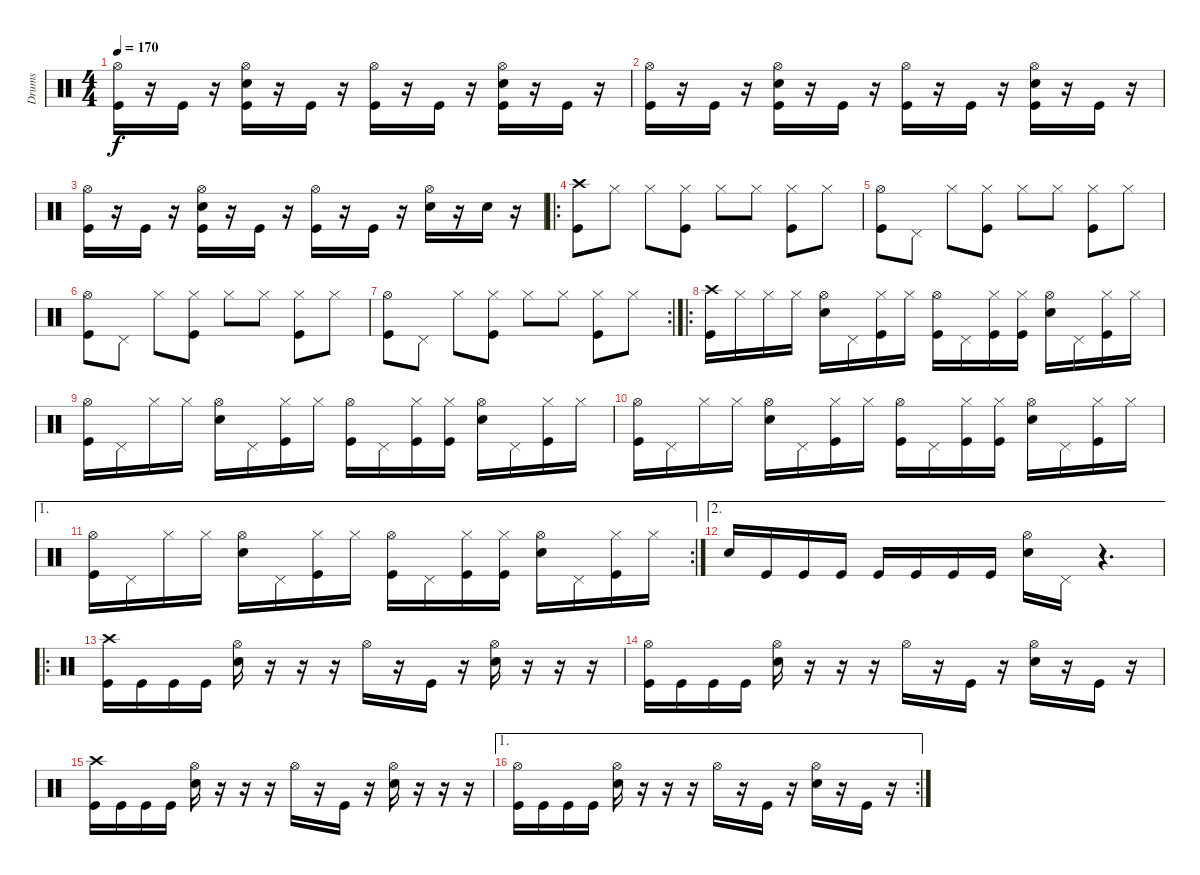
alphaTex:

\track ("Drums" "Drums") {instrument percussion}
\staff {score}
\articulation defaults
\ts (4 4)
\tempo 170
\clef neutral
\ks c
("Hi-Hat (open)" "Kick (hit)").16{dy f} r.16 "Kick (hit)".16 r.16 ("Hi-Hat (open)" "Snare (hit) 2" "Kick (hit)").16 r.16 "Kick (hit)".16 r.16 ("Hi-Hat (open)" "Kick (hit)").16 r.16 "Kick (hit)".16 r.16 ("Hi-Hat (open)" "Snare (hit) 2" "Kick (hit)").16 r.16 "Kick (hit)".16 r.16 |
("Hi-Hat (open)" "Kick (hit)").16 r.16 "Kick (hit)".16 r.16 ("Hi-Hat (open)" "Snare (hit) 2" "Kick (hit)").16 r.16 "Kick (hit)".16 r.16 ("Hi-Hat (open)" "Kick (hit)").16 r.16 "Kick (hit)".16 r.16 ("Hi-Hat (open)" "Snare (hit) 2" "Kick (hit)").16 r.16 "Kick (hit)".16 r.16 |
("Hi-Hat (open)" "Kick (hit)").16 r.16 "Kick (hit)".16 r.16 ("Hi-Hat (open)" "Snare (hit) 2" "Kick (hit)").16 r.16 "Kick (hit)".16 r.16 ("Hi-Hat (open)" "Kick (hit)").16 r.16 "Kick (hit)".16 r.16 ("Hi-Hat (open)" "Snare (hit) 2").16 r.16 "Snare (hit) 2".16 r.16 |
\ro
("Crash high (hit)" "Kick (hit)").8 "Hi-Hat (closed)".8 "Hi-Hat (closed)".8 ("Hi-Hat (closed)" "Kick (hit)").8 "Hi-Hat (closed)".8 "Hi-Hat (closed)".8 ("Hi-Hat (closed)" "Kick (hit)").8 "Hi-Hat (closed)".8 |
("Hi-Hat (open)" "Kick (hit)").8 "Pedal Hi-Hat (hit)".8 "Hi-Hat (closed)".8 ("Hi-Hat (closed)" "Kick (hit)").8 "Hi-Hat (closed)".8 "Hi-Hat (closed)".8 ("Hi-Hat (closed)" "Kick (hit)").8 "Hi-Hat (closed)".8 |
("Hi-Hat (open)" "Kick (hit)").8 "Pedal Hi-Hat (hit)".8 "Hi-Hat (closed)".8 ("Hi-Hat (closed)" "Kick (hit)").8 "Hi-Hat (closed)".8 "Hi-Hat (closed)".8 ("Hi-Hat (closed)" "Kick (hit)").8 "Hi-Hat (closed)".8 |
\rc 2
("Hi-Hat (open)" "Kick (hit)").8 "Pedal Hi-Hat (hit)".8 "Hi-Hat (closed)".8 ("Hi-Hat (closed)" "Kick (hit)").8 "Hi-Hat (closed)".8 "Hi-Hat (closed)".8 ("Hi-Hat (closed)" "Kick (hit)").8 "Hi-Hat (closed)".8 |
\ro
("Crash high (hit)" "Kick (hit)").16 "Hi-Hat (closed)".16 "Hi-Hat (closed)".16 "Hi-Hat (closed)".16 ("Hi-Hat (open)" "Snare (hit) 2").16 "Pedal Hi-Hat (hit)".16 ("Hi-Hat (closed)" "Kick (hit)").16 "Hi-Hat (closed)".16 ("Hi-Hat (open)" "Kick (hit)").16 "Pedal Hi-Hat (hit)".16 ("Hi-Hat (closed)" "Kick (hit)").16 ("Hi-Hat (closed)" "Kick (hit)").16 ("Hi-Hat (open)" "Snare (hit) 2").16 "Pedal Hi-Hat (hit)".16 ("Hi-Hat (closed)" "Kick (hit)").16 "Hi-Hat (closed)".16 |
("Hi-Hat (open)" "Kick (hit)").16 "Pedal Hi-Hat (hit)".16 "Hi-Hat (closed)".16 "Hi-Hat (closed)".16 ("Hi-Hat (open)" "Snare (hit) 2").16 "Pedal Hi-Hat (hit)".16 ("Hi-Hat (closed)" "Kick (hit)").16 "Hi-Hat (closed)".16 ("Hi-Hat (open)" "Kick (hit)").16 "Pedal Hi-Hat (hit)".16 ("Hi-Hat (closed)" "Kick (hit)").16 ("Hi-Hat (closed)" "Kick (hit)").16 ("Hi-Hat (open)" "Snare (hit) 2").16 "Pedal Hi-Hat (hit)".16 ("Hi-Hat (closed)" "Kick (hit)").16 "Hi-Hat (closed)".16 |
("Hi-Hat (open)" "Kick (hit)").16 "Pedal Hi-Hat (hit)".16 "Hi-Hat (closed)".16 "Hi-Hat (closed)".16 ("Hi-Hat (open)" "Snare (hit) 2").16 "Pedal Hi-Hat (hit)".16 ("Hi-Hat (closed)" "Kick (hit)").16 "Hi-Hat (closed)".16 ("Hi-Hat (open)" "Kick (hit)").16 "Pedal Hi-Hat (hit)".16 ("Hi-Hat (closed)" "Kick (hit)").16 ("Hi-Hat (closed)" "Kick (hit)").16 ("Hi-Hat (open)" "Snare (hit) 2").16 "Pedal Hi-Hat (hit)".16 ("Hi-Hat (closed)" "Kick (hit)").16 "Hi-Hat (closed)".16 |
\ae 1
\rc 2
("Hi-Hat (open)" "Kick (hit)").16 "Pedal Hi-Hat (hit)".16 "Hi-Hat (closed)".16 "Hi-Hat (closed)".16 ("Hi-Hat (open)" "Snare (hit) 2").16 "Pedal Hi-Hat (hit)".16 ("Hi-Hat (closed)" "Kick (hit)").16 "Hi-Hat (closed)".16 ("Hi-Hat (open)" "Kick (hit)").16 "Pedal Hi-Hat (hit)".16 ("Hi-Hat (closed)" "Kick (hit)").16 ("Hi-Hat (closed)" "Kick (hit)").16 ("Hi-Hat (open)" "Snare (hit) 2").16 "Pedal Hi-Hat (hit)".16 ("Hi-Hat (closed)" "Kick (hit)").16 "Hi-Hat (closed)".16 |
\ae 2 "Snare (hit) 2".16 "Kick (hit)".16 "Kick (hit)".16 "Kick (hit)".16 "Kick (hit)".16 "Kick (hit)".16 "Kick (hit)".16 "Kick (hit)".16
("Hi-Hat (open)" "Snare (hit) 2").16 "Pedal Hi-Hat (hit)".16 r.4{d} |
\ro
("Crash high (hit)" "Kick (hit)").16 "Kick (hit)".16 "Kick (hit)".16 "Kick (hit)".16 ("Hi-Hat (open)" "Snare (hit) 2").16 r.16 r.16 r.16 "Hi-Hat (open)".16 r.16 "Kick (hit)".16 r.16 ("Hi-Hat (open)" "Snare (hit) 2").16 r.16 r.16 r.16 |
("Hi-Hat (open)" "Kick (hit)").16 "Kick (hit)".16 "Kick (hit)".16 "Kick (hit)".16 ("Hi-Hat (open)" "Snare (hit) 2").16 r.16 r.16 r.16 "Hi-Hat (open)".16 r.16 "Kick (hit)".16 r.16 ("Hi-Hat (open)" "Snare (hit) 2").16 r.16 "Kick (hit)".16 r.16 |
("Crash high (hit)" "Kick (hit)").16 "Kick (hit)".16 "Kick (hit)".16 "Kick (hit)".16 ("Hi-Hat (open)" "Snare (hit) 2").16 r.16 r.16 r.16 "Hi-Hat (open)".16 r.16 "Kick (hit)".16 r.16 ("Hi-Hat (open)" "Snare (hit) 2").16 r.16 r.16 r.16 |
\ae 1
\rc 2
("Hi-Hat (open)" "Kick (hit)").16 "Kick (hit)".16 "Kick (hit)".16 "Kick (hit)".16 ("Hi-Hat (open)" "Snare (hit) 2").16 r.16 r.16 r.16 "Hi-Hat (open)".16 r.16 "Kick (hit)".16 r.16 ("Hi-Hat (open)" "Snare (hit) 2").16 r.16 "Kick (hit)".16 r.16
